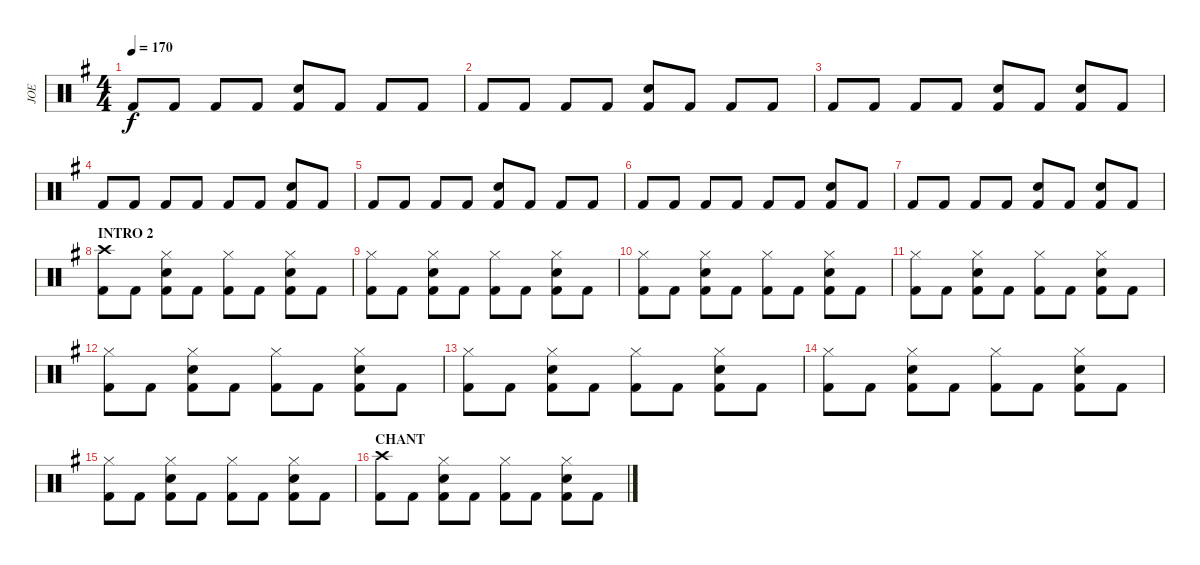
\track ("JOE" "JOE") {instrument percussion}
\staff {score}
\articulation defaults
\ts (4 4)
\tempo 170
\clef neutral
\ks eminor "Kick (hit) 2".8{dy f} "Kick (hit) 2".8 "Kick (hit) 2".8 "Kick (hit) 2".8
("Snare (hit) 2" "Kick (hit) 2").8 "Kick (hit) 2".8 "Kick (hit) 2".8 "Kick (hit) 2".8 |
"Kick (hit) 2".8 "Kick (hit) 2".8 "Kick (hit) 2".8 "Kick (hit) 2".8 ("Snare (hit) 2" "Kick (hit) 2").8 "Kick (hit) 2".8 "Kick (hit) 2".8 "Kick (hit) 2".8 |
"Kick (hit) 2".8 "Kick (hit) 2".8 "Kick (hit) 2".8 "Kick (hit) 2".8 ("Snare (hit) 2" "Kick (hit) 2").8 "Kick (hit) 2".8 ("Snare (hit) 2" "Kick (hit) 2").8 "Kick (hit) 2".8 |
"Kick (hit) 2".8 "Kick (hit) 2".8 "Kick (hit) 2".8 "Kick (hit) 2".8 "Kick (hit) 2".8 "Kick (hit) 2".8 ("Snare (hit) 2" "Kick (hit) 2").8 "Kick (hit) 2".8 |
"Kick (hit) 2".8 "Kick (hit) 2".8 "Kick (hit) 2".8 "Kick (hit) 2".8 ("Snare (hit) 2" "Kick (hit) 2").8 "Kick (hit) 2".8 "Kick (hit) 2".8 "Kick (hit) 2".8 |
"Kick (hit) 2".8 "Kick (hit) 2".8 "Kick (hit) 2".8 "Kick (hit) 2".8 "Kick (hit) 2".8 "Kick (hit) 2".8 ("Snare (hit) 2" "Kick (hit) 2").8 "Kick (hit) 2".8 |
"Kick (hit) 2".8 "Kick (hit) 2".8 "Kick (hit) 2".8 "Kick (hit) 2".8 ("Snare (hit) 2" "Kick (hit) 2").8 "Kick (hit) 2".8 ("Snare (hit) 2" "Kick (hit) 2").8 "Kick (hit) 2".8 |
\section ("" "INTRO 2")
("Crash high (hit)" "Kick (hit) 2").8 "Kick (hit) 2".8 ("Hi-Hat (closed)" "Kick (hit) 2" "Snare (hit) 2").8 "Kick (hit) 2".8 ("Hi-Hat (closed)" "Kick (hit) 2").8 "Kick (hit) 2".8 ("Hi-Hat (closed)" "Kick (hit) 2" "Snare (hit) 2").8 "Kick (hit) 2".8 |
("Hi-Hat (closed)" "Kick (hit) 2").8 "Kick (hit) 2".8 ("Hi-Hat (closed)" "Kick (hit) 2" "Snare (hit) 2").8 "Kick (hit) 2".8 ("Hi-Hat (closed)" "Kick (hit) 2").8 "Kick (hit) 2".8 ("Hi-Hat (closed)" "Kick (hit) 2" "Snare (hit) 2").8 "Kick (hit) 2".8 |
("Hi-Hat (closed)" "Kick (hit) 2").8 "Kick (hit) 2".8 ("Hi-Hat (closed)" "Kick (hit) 2" "Snare (hit) 2").8 "Kick (hit) 2".8 ("Hi-Hat (closed)" "Kick (hit) 2").8 "Kick (hit) 2".8 ("Hi-Hat (closed)" "Kick (hit) 2" "Snare (hit) 2").8 "Kick (hit) 2".8 |
("Hi-Hat (closed)" "Kick (hit) 2").8 "Kick (hit) 2".8 ("Hi-Hat (closed)" "Kick (hit) 2" "Snare (hit) 2").8 "Kick (hit) 2".8 ("Hi-Hat (closed)" "Kick (hit) 2").8 "Kick (hit) 2".8 ("Hi-Hat (closed)" "Kick (hit) 2" "Snare (hit) 2").8 "Kick (hit) 2".8 |
("Hi-Hat (closed)" "Kick (hit) 2").8 "Kick (hit) 2".8 ("Hi-Hat (closed)" "Kick (hit) 2" "Snare (hit) 2").8 "Kick (hit) 2".8 ("Hi-Hat (closed)" "Kick (hit) 2").8 "Kick (hit) 2".8 ("Hi-Hat (closed)" "Kick (hit) 2" "Snare (hit) 2").8 "Kick (hit) 2".8 |
("Hi-Hat (closed)" "Kick (hit) 2").8 "Kick (hit) 2".8 ("Hi-Hat (closed)" "Kick (hit) 2" "Snare (hit) 2").8 "Kick (hit) 2".8 ("Hi-Hat (closed)" "Kick (hit) 2").8 "Kick (hit) 2".8 ("Hi-Hat (closed)" "Kick (hit) 2" "Snare (hit) 2").8 "Kick (hit) 2".8 |
("Hi-Hat (closed)" "Kick (hit) 2").8 "Kick (hit) 2".8 ("Hi-Hat (closed)" "Kick (hit) 2" "Snare (hit) 2").8 "Kick (hit) 2".8 ("Hi-Hat (closed)" "Kick (hit) 2").8 "Kick (hit) 2".8 ("Hi-Hat (closed)" "Kick (hit) 2" "Snare (hit) 2").8 "Kick (hit) 2".8 |
("Hi-Hat (closed)" "Kick (hit) 2").8 "Kick (hit) 2".8 ("Hi-Hat (closed)" "Kick (hit) 2" "Snare (hit) 2").8 "Kick (hit) 2".8 ("Hi-Hat (closed)" "Kick (hit) 2").8 "Kick (hit) 2".8 ("Hi-Hat (closed)" "Kick (hit) 2" "Snare (hit) 2").8 "Kick (hit) 2".8 |
\section ("" "CHANT")
("Crash high (hit)" "Kick (hit) 2").8 "Kick (hit) 2".8 ("Hi-Hat (closed)" "Kick (hit) 2" "Snare (hit) 2").8 "Kick (hit) 2".8 ("Hi-Hat (closed)" "Kick (hit) 2").8 "Kick (hit) 2".8 ("Hi-Hat (closed)" "Kick (hit) 2" "Snare (hit) 2").8 "Kick (hit) 2".8
